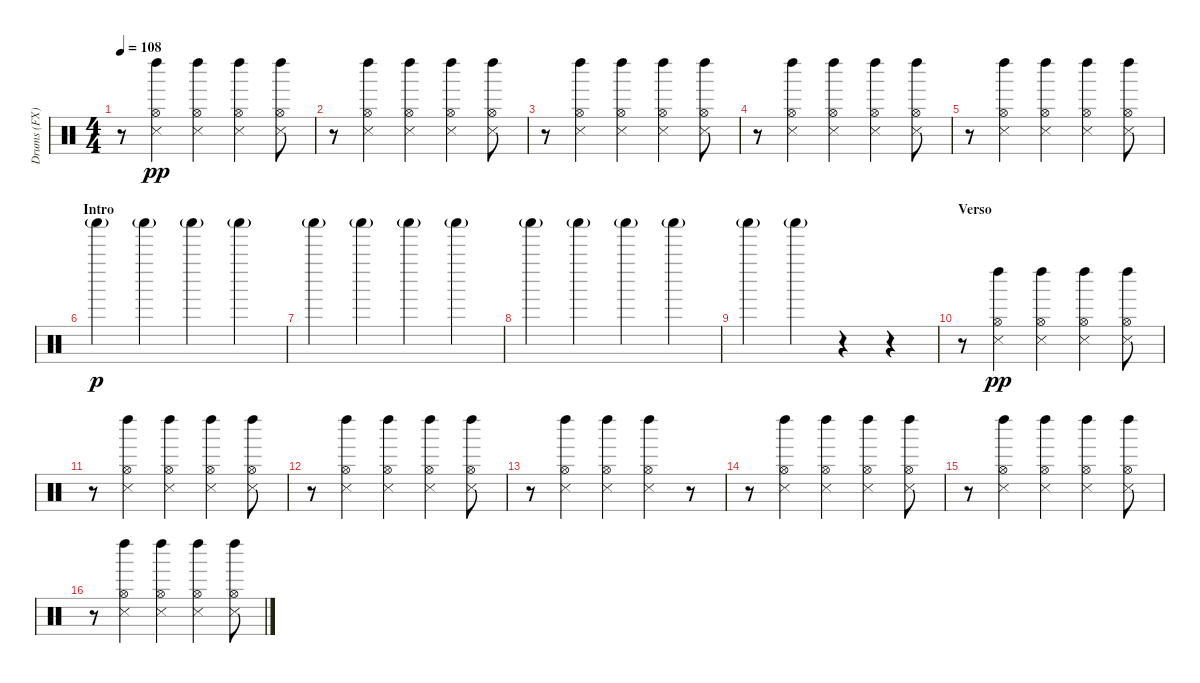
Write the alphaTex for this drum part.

\track ("Drums (FX)" "Drums (FX)") {instrument percussion}
\staff {score}
\articulation defaults
\ts (4 4)
\tempo 108
\clef neutral
\ks c
r.8{dy pp} ("Hi-Hat (open)" "Snare (side stick) 3" "Left Maraca (hit)").4 ("Hi-Hat (open)" "Snare (side stick) 3" "Left Maraca (hit)").4 ("Hi-Hat (open)" "Snare (side stick) 3" "Left Maraca (hit)").4 ("Hi-Hat (open)" "Snare (side stick) 3" "Left Maraca (hit)").8 |
r.8 ("Hi-Hat (open)" "Snare (side stick) 3" "Left Maraca (hit)").4 ("Hi-Hat (open)" "Snare (side stick) 3" "Left Maraca (hit)").4 ("Hi-Hat (open)" "Snare (side stick) 3" "Left Maraca (hit)").4 ("Hi-Hat (open)" "Snare (side stick) 3" "Left Maraca (hit)").8 |
r.8 ("Hi-Hat (open)" "Snare (side stick) 3" "Left Maraca (hit)").4 ("Hi-Hat (open)" "Snare (side stick) 3" "Left Maraca (hit)").4 ("Hi-Hat (open)" "Snare (side stick) 3" "Left Maraca (hit)").4 ("Hi-Hat (open)" "Snare (side stick) 3" "Left Maraca (hit)").8 |
r.8 ("Hi-Hat (open)" "Snare (side stick) 3" "Left Maraca (hit)").4 ("Hi-Hat (open)" "Snare (side stick) 3" "Left Maraca (hit)").4 ("Hi-Hat (open)" "Snare (side stick) 3" "Left Maraca (hit)").4 ("Hi-Hat (open)" "Snare (side stick) 3" "Left Maraca (hit)").8 |
r.8 ("Hi-Hat (open)" "Snare (side stick) 3" "Left Maraca (hit)").4 ("Hi-Hat (open)" "Snare (side stick) 3" "Left Maraca (hit)").4 ("Hi-Hat (open)" "Snare (side stick) 3" "Left Maraca (hit)").4 ("Hi-Hat (open)" "Snare (side stick) 3" "Left Maraca (hit)").8 |
\section ("" "Intro")
"Shaker (hit)"{g}.4{dy p} "Shaker (hit)"{g}.4 "Shaker (hit)"{g}.4 "Shaker (hit)"{g}.4 |
"Shaker (hit)"{g}.4 "Shaker (hit)"{g}.4 "Shaker (hit)"{g}.4 "Shaker (hit)"{g}.4 |
"Shaker (hit)"{g}.4 "Shaker (hit)"{g}.4 "Shaker (hit)"{g}.4 "Shaker (hit)"{g}.4 |
"Shaker (hit)"{g}.4 "Shaker (hit)"{g}.4 r.4 r.4 |
\section ("" "Verso")
r.8 ("Hi-Hat (open)" "Snare (side stick) 3" "Left Maraca (hit)").4{dy pp} ("Hi-Hat (open)" "Snare (side stick) 3" "Left Maraca (hit)").4 ("Hi-Hat (open)" "Snare (side stick) 3" "Left Maraca (hit)").4 ("Hi-Hat (open)" "Snare (side stick) 3" "Left Maraca (hit)").8 |
r.8 ("Hi-Hat (open)" "Snare (side stick) 3" "Left Maraca (hit)").4 ("Hi-Hat (open)" "Snare (side stick) 3" "Left Maraca (hit)").4 ("Hi-Hat (open)" "Snare (side stick) 3" "Left Maraca (hit)").4 ("Hi-Hat (open)" "Snare (side stick) 3" "Left Maraca (hit)").8 |
r.8 ("Hi-Hat (open)" "Snare (side stick) 3" "Left Maraca (hit)").4 ("Hi-Hat (open)" "Snare (side stick) 3" "Left Maraca (hit)").4 ("Hi-Hat (open)" "Snare (side stick) 3" "Left Maraca (hit)").4 ("Hi-Hat (open)" "Snare (side stick) 3" "Left Maraca (hit)").8 |
r.8 ("Hi-Hat (open)" "Snare (side stick) 3" "Left Maraca (hit)").4 ("Hi-Hat (open)" "Snare (side stick) 3" "Left Maraca (hit)").4 ("Hi-Hat (open)" "Snare (side stick) 3" "Left Maraca (hit)").4 r.8 |
r.8 ("Hi-Hat (open)" "Snare (side stick) 3" "Left Maraca (hit)").4 ("Hi-Hat (open)" "Snare (side stick) 3" "Left Maraca (hit)").4 ("Hi-Hat (open)" "Snare (side stick) 3" "Left Maraca (hit)").4 ("Hi-Hat (open)" "Snare (side stick) 3" "Left Maraca (hit)").8 |
r.8 ("Hi-Hat (open)" "Snare (side stick) 3" "Left Maraca (hit)").4 ("Hi-Hat (open)" "Snare (side stick) 3" "Left Maraca (hit)").4 ("Hi-Hat (open)" "Snare (side stick) 3" "Left Maraca (hit)").4 ("Hi-Hat (open)" "Snare (side stick) 3" "Left Maraca (hit)").8 |
r.8 ("Hi-Hat (open)" "Snare (side stick) 3" "Left Maraca (hit)").4 ("Hi-Hat (open)" "Snare (side stick) 3" "Left Maraca (hit)").4 ("Hi-Hat (open)" "Snare (side stick) 3" "Left Maraca (hit)").4 ("Hi-Hat (open)" "Snare (side stick) 3" "Left Maraca (hit)").8
